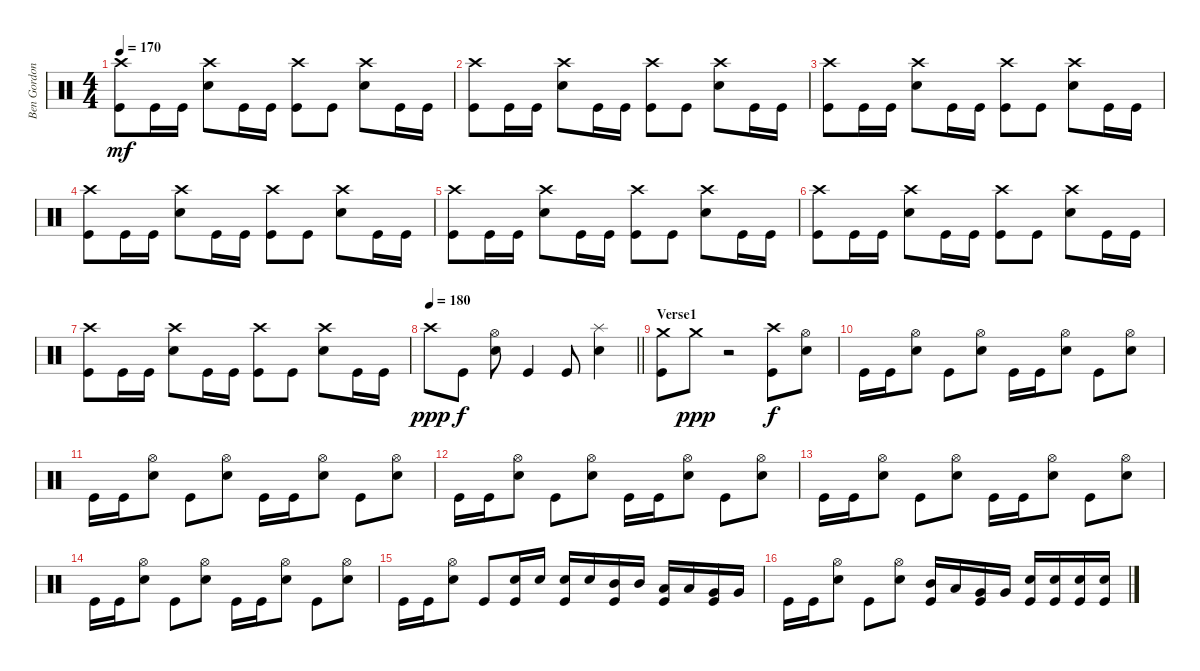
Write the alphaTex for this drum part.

\track ("Ben Gordon" "Ben Gordon") {instrument percussion}
\staff {score}
\articulation defaults
\ts (4 4)
\tempo 170
\clef neutral
\ks c
("Crash high (hit)" "Kick (hit)").8{dy mf} "Kick (hit)".16 "Kick (hit)".16 ("Crash high (hit)" "Electric Snare (hit)").8 "Kick (hit)".16 "Kick (hit)".16 ("Crash high (hit)" "Kick (hit)").8 "Kick (hit)".8 ("Crash high (hit)" "Electric Snare (hit)").8 "Kick (hit)".16 "Kick (hit)".16 |
("Crash high (hit)" "Kick (hit)").8 "Kick (hit)".16 "Kick (hit)".16 ("Crash high (hit)" "Electric Snare (hit)").8 "Kick (hit)".16 "Kick (hit)".16 ("Crash high (hit)" "Kick (hit)").8 "Kick (hit)".8 ("Crash high (hit)" "Electric Snare (hit)").8 "Kick (hit)".16 "Kick (hit)".16 |
("Crash high (hit)" "Kick (hit)").8 "Kick (hit)".16 "Kick (hit)".16 ("Crash high (hit)" "Electric Snare (hit)").8 "Kick (hit)".16 "Kick (hit)".16 ("Crash high (hit)" "Kick (hit)").8 "Kick (hit)".8 ("Crash high (hit)" "Electric Snare (hit)").8 "Kick (hit)".16 "Kick (hit)".16 |
("Crash high (hit)" "Kick (hit)").8 "Kick (hit)".16 "Kick (hit)".16 ("Crash high (hit)" "Electric Snare (hit)").8 "Kick (hit)".16 "Kick (hit)".16 ("Crash high (hit)" "Kick (hit)").8 "Kick (hit)".8 ("Crash high (hit)" "Electric Snare (hit)").8 "Kick (hit)".16 "Kick (hit)".16 |
("Crash high (hit)" "Kick (hit)").8 "Kick (hit)".16 "Kick (hit)".16 ("Crash high (hit)" "Electric Snare (hit)").8 "Kick (hit)".16 "Kick (hit)".16 ("Crash high (hit)" "Kick (hit)").8 "Kick (hit)".8 ("Crash high (hit)" "Electric Snare (hit)").8 "Kick (hit)".16 "Kick (hit)".16 |
("Crash high (hit)" "Kick (hit)").8 "Kick (hit)".16 "Kick (hit)".16 ("Crash high (hit)" "Electric Snare (hit)").8 "Kick (hit)".16 "Kick (hit)".16 ("Crash high (hit)" "Kick (hit)").8 "Kick (hit)".8 ("Crash high (hit)" "Electric Snare (hit)").8 "Kick (hit)".16 "Kick (hit)".16 |
("Crash high (hit)" "Kick (hit)").8 "Kick (hit)".16 "Kick (hit)".16 ("Crash high (hit)" "Electric Snare (hit)").8 "Kick (hit)".16 "Kick (hit)".16 ("Crash high (hit)" "Kick (hit)").8 "Kick (hit)".8 ("Crash high (hit)" "Electric Snare (hit)").8 "Kick (hit)".16 "Kick (hit)".16 |
\tempo 180
\barLineRight lightlight "Crash high (hit)".8{dy ppp} "Kick (hit)".8{dy f}
("Hi-Hat (open)" "Electric Snare (hit)").8 "Kick (hit)".4 "Kick (hit)".8 ("Splash (hit)" "Electric Snare (hit)").4 |
\section ("" "Verse1")
("Crash medium (hit)" "Kick (hit)").8 "Crash medium (hit)".8{dy ppp} r.2 ("Crash high (hit)" "Kick (hit)").8{dy f} ("Hi-Hat (open)" "Electric Snare (hit)").8 |
"Kick (hit)".16 "Kick (hit)".16 ("Hi-Hat (open)" "Electric Snare (hit)").8 "Kick (hit)".8 ("Hi-Hat (open)" "Electric Snare (hit)").8 "Kick (hit)".16 "Kick (hit)".16 ("Hi-Hat (open)" "Electric Snare (hit)").8 "Kick (hit)".8 ("Hi-Hat (open)" "Electric Snare (hit)").8 |
"Kick (hit)".16 "Kick (hit)".16 ("Hi-Hat (open)" "Electric Snare (hit)").8 "Kick (hit)".8 ("Hi-Hat (open)" "Electric Snare (hit)").8 "Kick (hit)".16 "Kick (hit)".16 ("Hi-Hat (open)" "Electric Snare (hit)").8 "Kick (hit)".8 ("Hi-Hat (open)" "Electric Snare (hit)").8 |
"Kick (hit)".16 "Kick (hit)".16 ("Hi-Hat (open)" "Electric Snare (hit)").8 "Kick (hit)".8 ("Hi-Hat (open)" "Electric Snare (hit)").8 "Kick (hit)".16 "Kick (hit)".16 ("Hi-Hat (open)" "Electric Snare (hit)").8 "Kick (hit)".8 ("Hi-Hat (open)" "Electric Snare (hit)").8 |
"Kick (hit)".16 "Kick (hit)".16 ("Hi-Hat (open)" "Electric Snare (hit)").8 "Kick (hit)".8 ("Hi-Hat (open)" "Electric Snare (hit)").8 "Kick (hit)".16 "Kick (hit)".16 ("Hi-Hat (open)" "Electric Snare (hit)").8 "Kick (hit)".8 ("Hi-Hat (open)" "Electric Snare (hit)").8 |
"Kick (hit)".16 "Kick (hit)".16 ("Hi-Hat (open)" "Electric Snare (hit)").8 "Kick (hit)".8 ("Hi-Hat (open)" "Electric Snare (hit)").8 "Kick (hit)".16 "Kick (hit)".16 ("Hi-Hat (open)" "Electric Snare (hit)").8 "Kick (hit)".8 ("Hi-Hat (open)" "Electric Snare (hit)").8 |
"Kick (hit)".16 "Kick (hit)".16 ("Hi-Hat (open)" "Electric Snare (hit)").8 "Kick (hit)".8 ("Electric Snare (hit)" "Kick (hit)").16 "Electric Snare (hit)".16 ("Electric Snare (hit)" "Kick (hit)").16 "Electric Snare (hit)".16 ("Mid Tom (hit)" "Kick (hit)").16 "Mid Tom (hit)".16 ("Low Tom (hit)" "Kick (hit)").16 "Low Tom (hit)".16 ("Very Low Tom (hit)" "Kick (hit)").16 "Very Low Tom (hit)".16 |
"Kick (hit)".16 "Kick (hit)".16 ("Hi-Hat (open)" "Electric Snare (hit)").8 "Kick (hit)".8 ("Hi-Hat (open)" "Electric Snare (hit)").8 ("Mid Tom (hit)" "Kick (hit)").16 "Low Tom (hit)".16 ("Very Low Tom (hit)" "Kick (hit)").16 "Very Low Tom (hit)".16 ("Electric Snare (hit)" "Kick (hit)").16 ("Electric Snare (hit)" "Kick (hit)").16 ("Electric Snare (hit)" "Kick (hit)").16 ("Electric Snare (hit)" "Kick (hit)").16
